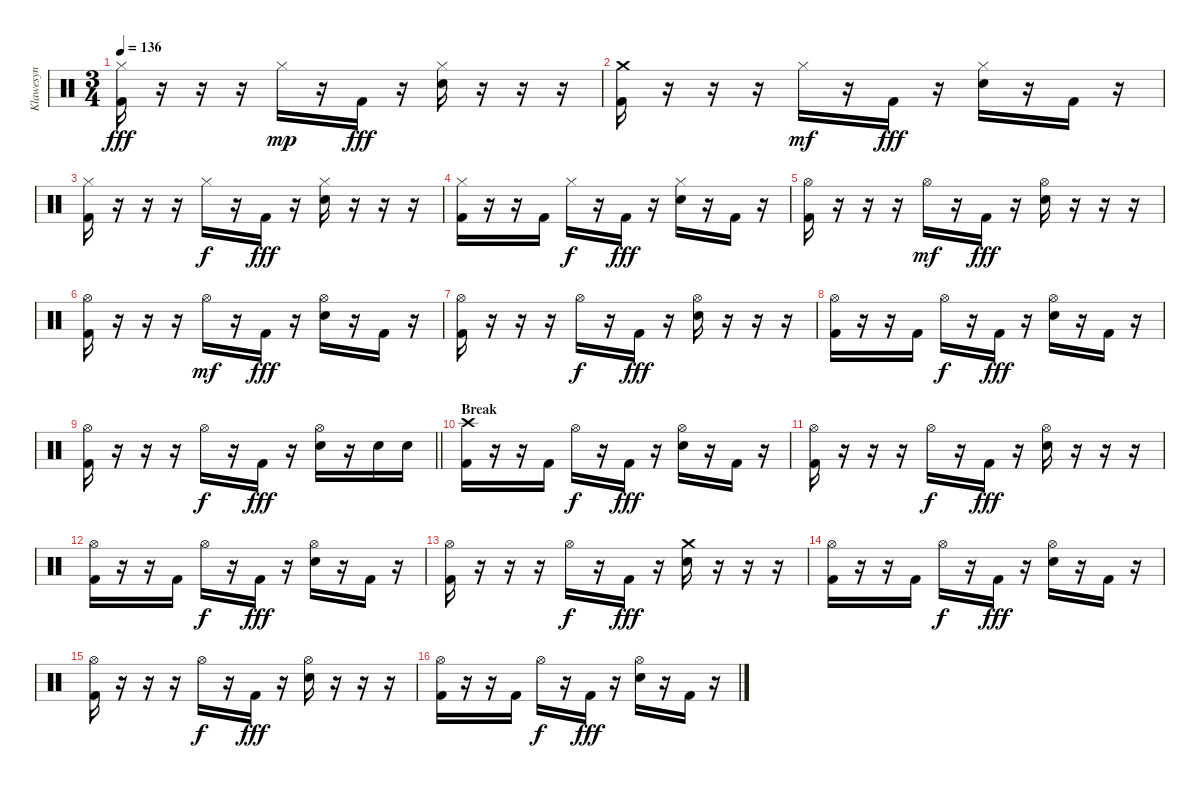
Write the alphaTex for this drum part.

\track ("Klawesyn" "Klawesyn") {instrument percussion}
\staff {score}
\articulation defaults
\ts (3 4)
\tempo 136
\clef neutral
\ks c
("Hi-Hat (closed)" "Kick (hit) 2").16{dy fff} r.16 r.16 r.16 "Hi-Hat (closed)".16{dy mp} r.16 "Kick (hit) 2".16{dy fff} r.16 ("Hi-Hat (closed)" "Snare (hit) 2").16 r.16 r.16 r.16 |
("Crash medium (hit)" "Kick (hit) 2").16 r.16 r.16 r.16 "Hi-Hat (closed)".16{dy mf} r.16 "Kick (hit) 2".16{dy fff} r.16 ("Hi-Hat (closed)" "Snare (hit) 2").16 r.16 "Kick (hit) 2".16 r.16 |
("Hi-Hat (closed)" "Kick (hit) 2").16 r.16 r.16 r.16 "Hi-Hat (closed)".16{dy f} r.16 "Kick (hit) 2".16{dy fff} r.16 ("Hi-Hat (closed)" "Snare (hit) 2").16 r.16 r.16 r.16 |
("Hi-Hat (closed)" "Kick (hit) 2").16 r.16 r.16 "Kick (hit) 2".16 "Hi-Hat (closed)".16{dy f} r.16 "Kick (hit) 2".16{dy fff} r.16 ("Hi-Hat (closed)" "Snare (hit) 2").16 r.16 "Kick (hit) 2".16 r.16 |
("Hi-Hat (open)" "Kick (hit) 2").16 r.16 r.16 r.16 "Hi-Hat (open)".16{dy mf} r.16 "Kick (hit) 2".16{dy fff} r.16 ("Hi-Hat (open)" "Snare (hit) 2").16 r.16 r.16 r.16 |
("Hi-Hat (open)" "Kick (hit) 2").16 r.16 r.16 r.16 "Hi-Hat (open)".16{dy mf} r.16 "Kick (hit) 2".16{dy fff} r.16 ("Hi-Hat (open)" "Snare (hit) 2").16 r.16 "Kick (hit) 2".16 r.16 |
("Hi-Hat (open)" "Kick (hit) 2").16 r.16 r.16 r.16 "Hi-Hat (open)".16{dy f} r.16 "Kick (hit) 2".16{dy fff} r.16 ("Hi-Hat (open)" "Snare (hit) 2").16 r.16 r.16 r.16 |
("Hi-Hat (open)" "Kick (hit) 2").16 r.16 r.16 "Kick (hit) 2".16 "Hi-Hat (open)".16{dy f} r.16 "Kick (hit) 2".16{dy fff} r.16 ("Hi-Hat (open)" "Snare (hit) 2").16 r.16 "Kick (hit) 2".16 r.16 |
\barLineRight lightlight
("Hi-Hat (open)" "Kick (hit) 2").16 r.16 r.16 r.16 "Hi-Hat (open)".16{dy f} r.16 "Kick (hit) 2".16{dy fff} r.16 ("Hi-Hat (open)" "Snare (hit) 2").16 r.16 "Snare (hit) 2".16 "Snare (hit) 2".16 |
\section ("" "Break")
("Crash high (hit)" "Kick (hit) 2").16 r.16 r.16 "Kick (hit) 2".16 "Hi-Hat (open)".16{dy f} r.16 "Kick (hit) 2".16{dy fff} r.16 ("Hi-Hat (open)" "Snare (hit) 2").16 r.16 "Kick (hit) 2".16 r.16 |
("Hi-Hat (open)" "Kick (hit) 2").16 r.16 r.16 r.16 "Hi-Hat (open)".16{dy f} r.16 "Kick (hit) 2".16{dy fff} r.16 ("Hi-Hat (open)" "Snare (hit) 2").16 r.16 r.16 r.16 |
("Hi-Hat (open)" "Kick (hit) 2").16 r.16 r.16 "Kick (hit) 2".16 "Hi-Hat (open)".16{dy f} r.16 "Kick (hit) 2".16{dy fff} r.16 ("Hi-Hat (open)" "Snare (hit) 2").16 r.16 "Kick (hit) 2".16 r.16 |
("Hi-Hat (open)" "Kick (hit) 2").16 r.16 r.16 r.16 "Hi-Hat (open)".16{dy f} r.16 "Kick (hit) 2".16{dy fff} r.16 ("Crash medium (hit)" "Snare (hit) 2").16 r.16 r.16 r.16 |
("Hi-Hat (open)" "Kick (hit) 2").16 r.16 r.16 "Kick (hit) 2".16 "Hi-Hat (open)".16{dy f} r.16 "Kick (hit) 2".16{dy fff} r.16 ("Hi-Hat (open)" "Snare (hit) 2").16 r.16 "Kick (hit) 2".16 r.16 |
("Hi-Hat (open)" "Kick (hit) 2").16 r.16 r.16 r.16 "Hi-Hat (open)".16{dy f} r.16 "Kick (hit) 2".16{dy fff} r.16 ("Hi-Hat (open)" "Snare (hit) 2").16 r.16 r.16 r.16 |
("Hi-Hat (open)" "Kick (hit) 2").16 r.16 r.16 "Kick (hit) 2".16 "Hi-Hat (open)".16{dy f} r.16 "Kick (hit) 2".16{dy fff} r.16 ("Hi-Hat (open)" "Snare (hit) 2").16 r.16 "Kick (hit) 2".16 r.16
